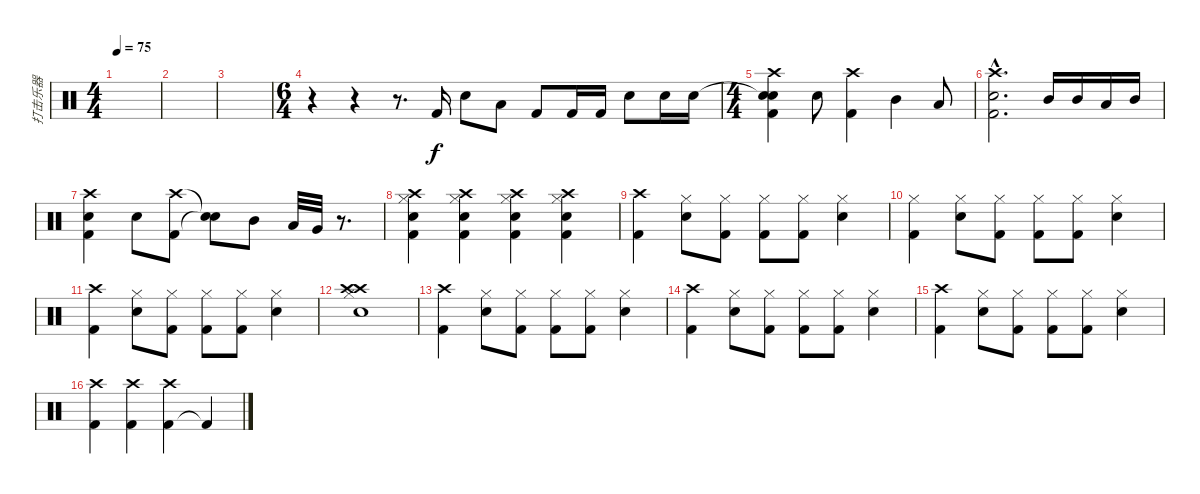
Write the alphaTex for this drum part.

\track ("打击乐器" "打击乐器") {instrument percussion}
\staff {score}
\articulation defaults
\ts (4 4)
\tempo 75
\clef neutral
\ks c
|
|
|
\ts (6 4)
r.4 r.4 r.8{d} "Kick (hit) 2".16 "Electric Snare (hit)".8 "Low Tom (hit)".8 "Kick (hit) 2".8 "Kick (hit) 2".16 "Kick (hit) 2".16 "Electric Snare (hit)".8 "Electric Snare (hit)".16 "Electric Snare (hit)".16 |
\ts (4 4)
("Snare (hit)"{t} "Electric Snare (hit)" "Kick (hit) 2" "Crash high (hit)").4 "Electric Snare (hit)".8 ("Kick (hit) 2" "Crash high (hit)").4 "Mid Tom (hit)".4 "Low Tom (hit)".8 |
("Electric Snare (hit)"{hac} "Kick (hit) 2"{hac} "Crash high (hit)"{hac}).2{d} "Mid Tom (hit)".16 "Mid Tom (hit)".16 "Low Tom (hit)".16 "Mid Tom (hit)".16 |
("Electric Snare (hit)" "Kick (hit) 2" "Crash high (hit)").4 "Electric Snare (hit)".8 ("Kick (hit) 2" "Crash high (hit)").8 ("Snare (hit)"{t} "Snare (hit)"{t}).8 "Mid Tom (hit)".8 "Low Tom (hit)".32 "Very Low Tom (hit)".32 r.8{d} |
("Hi-Hat (closed)" "Electric Snare (hit)" "Kick (hit) 2" "Crash high (hit)").4 ("Hi-Hat (closed)" "Electric Snare (hit)" "Kick (hit) 2" "Crash high (hit)").4 ("Hi-Hat (closed)" "Electric Snare (hit)" "Kick (hit) 2" "Crash high (hit)").4 ("Hi-Hat (closed)" "Electric Snare (hit)" "Kick (hit) 2" "Crash high (hit)").4 |
("Kick (hit) 2" "Crash high (hit)").4 ("Hi-Hat (closed)" "Electric Snare (hit)").8 ("Hi-Hat (closed)" "Kick (hit) 2").8 ("Hi-Hat (closed)" "Kick (hit) 2").8 ("Hi-Hat (closed)" "Kick (hit) 2").8 ("Hi-Hat (closed)" "Electric Snare (hit)").4 |
("Hi-Hat (closed)" "Kick (hit) 2").4 ("Hi-Hat (closed)" "Electric Snare (hit)").8 ("Hi-Hat (closed)" "Kick (hit) 2").8 ("Hi-Hat (closed)" "Kick (hit) 2").8 ("Hi-Hat (closed)" "Kick (hit) 2").8 ("Hi-Hat (closed)" "Electric Snare (hit)").4 |
("Kick (hit) 2" "Crash high (hit)").4 ("Hi-Hat (closed)" "Electric Snare (hit)").8 ("Hi-Hat (closed)" "Kick (hit) 2").8 ("Hi-Hat (closed)" "Kick (hit) 2").8 ("Hi-Hat (closed)" "Kick (hit) 2").8 ("Hi-Hat (closed)" "Electric Snare (hit)").4 |
("Hi-Hat (closed)" "Crash high (hit)" "Electric Snare (hit)" "Crash high (hit)").1 |
("Kick (hit) 2" "Crash high (hit)").4 ("Hi-Hat (closed)" "Electric Snare (hit)").8 ("Hi-Hat (closed)" "Kick (hit) 2").8 ("Hi-Hat (closed)" "Kick (hit) 2").8 ("Hi-Hat (closed)" "Kick (hit) 2").8 ("Hi-Hat (closed)" "Electric Snare (hit)").4 |
("Kick (hit) 2" "Crash high (hit)").4 ("Hi-Hat (closed)" "Electric Snare (hit)").8 ("Hi-Hat (closed)" "Kick (hit) 2").8 ("Hi-Hat (closed)" "Kick (hit) 2").8 ("Hi-Hat (closed)" "Kick (hit) 2").8 ("Hi-Hat (closed)" "Electric Snare (hit)").4 |
("Kick (hit) 2" "Crash high (hit)").4 ("Hi-Hat (closed)" "Electric Snare (hit)").8 ("Hi-Hat (closed)" "Kick (hit) 2").8 ("Hi-Hat (closed)" "Kick (hit) 2").8 ("Hi-Hat (closed)" "Kick (hit) 2").8 ("Hi-Hat (closed)" "Electric Snare (hit)").4 |
("Kick (hit) 2" "Crash high (hit)").4 ("Kick (hit) 2" "Crash high (hit)").4 ("Kick (hit) 2" "Crash high (hit)").4 "Kick (hit) 2"{t}.4
